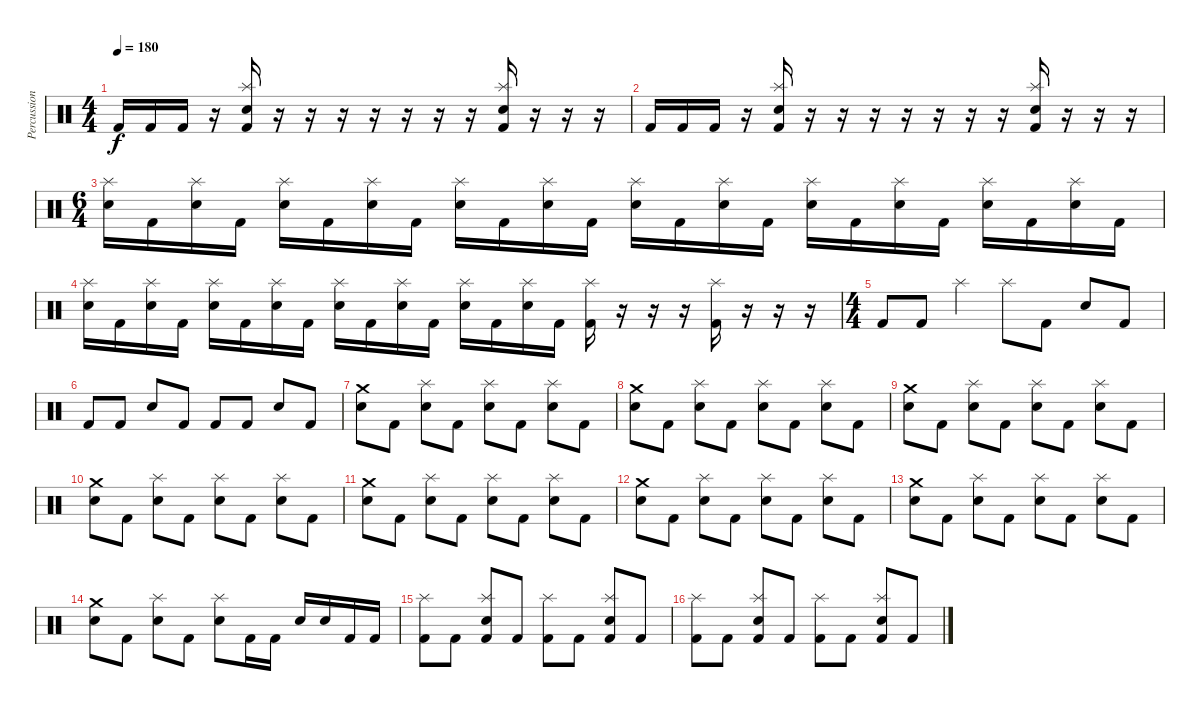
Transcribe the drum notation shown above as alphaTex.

\track ("Percussion" "Percussion") {instrument percussion}
\staff {score}
\articulation defaults
\ts (4 4)
\tempo 180
\clef neutral
\ks c "Kick (hit) 2".16{dy f} "Kick (hit) 2".16 "Kick (hit) 2".16
r.16 ("Splash (hit)" "Snare (hit) 2" "Kick (hit) 2").16 r.16 r.16 r.16 r.16 r.16 r.16 r.16 ("Splash (hit)" "Snare (hit) 2" "Kick (hit) 2").16 r.16 r.16 r.16 |
"Kick (hit) 2".16 "Kick (hit) 2".16 "Kick (hit) 2".16 r.16 ("Splash (hit)" "Snare (hit) 2" "Kick (hit) 2").16 r.16 r.16 r.16 r.16 r.16 r.16 r.16 ("Splash (hit)" "Snare (hit) 2" "Kick (hit) 2").16 r.16 r.16 r.16 |
\ts (6 4)
("Splash (hit)" "Snare (hit) 2").16 "Kick (hit) 2".16 ("Splash (hit)" "Snare (hit) 2").16 "Kick (hit) 2".16 ("Splash (hit)" "Snare (hit) 2").16 "Kick (hit) 2".16 ("Splash (hit)" "Snare (hit) 2").16 "Kick (hit) 2".16 ("Splash (hit)" "Snare (hit) 2").16 "Kick (hit) 2".16 ("Splash (hit)" "Snare (hit) 2").16 "Kick (hit) 2".16 ("Splash (hit)" "Snare (hit) 2").16 "Kick (hit) 2".16 ("Splash (hit)" "Snare (hit) 2").16 "Kick (hit) 2".16 ("Splash (hit)" "Snare (hit) 2").16 "Kick (hit) 2".16 ("Splash (hit)" "Snare (hit) 2").16 "Kick (hit) 2".16 ("Splash (hit)" "Snare (hit) 2").16 "Kick (hit) 2".16 ("Splash (hit)" "Snare (hit) 2").16 "Kick (hit) 2".16 |
("Splash (hit)" "Snare (hit) 2").16 "Kick (hit) 2".16 ("Splash (hit)" "Snare (hit) 2").16 "Kick (hit) 2".16 ("Splash (hit)" "Snare (hit) 2").16 "Kick (hit) 2".16 ("Splash (hit)" "Snare (hit) 2").16 "Kick (hit) 2".16 ("Splash (hit)" "Snare (hit) 2").16 "Kick (hit) 2".16 ("Splash (hit)" "Snare (hit) 2").16 "Kick (hit) 2".16 ("Splash (hit)" "Snare (hit) 2").16 "Kick (hit) 2".16 ("Splash (hit)" "Snare (hit) 2").16 "Kick (hit) 2".16 ("Splash (hit)" "Kick (hit) 2").16 r.16 r.16 r.16 ("Splash (hit)" "Kick (hit) 2").16 r.16 r.16 r.16 |
\ts (4 4)
"Kick (hit) 2".8 "Kick (hit) 2".8 "Splash (hit)".4 "Splash (hit)".8 "Kick (hit) 2".8 "Snare (hit) 2".8 "Kick (hit) 2".8 |
"Kick (hit) 2".8 "Kick (hit) 2".8 "Snare (hit) 2".8 "Kick (hit) 2".8 "Kick (hit) 2".8 "Kick (hit) 2".8 "Snare (hit) 2".8 "Kick (hit) 2".8 |
("Crash medium (hit)" "Snare (hit) 2").8 "Kick (hit) 2".8 ("Splash (hit)" "Snare (hit) 2").8 "Kick (hit) 2".8 ("Splash (hit)" "Snare (hit) 2").8 "Kick (hit) 2".8 ("Splash (hit)" "Snare (hit) 2").8 "Kick (hit) 2".8 |
("Crash medium (hit)" "Snare (hit) 2").8 "Kick (hit) 2".8 ("Splash (hit)" "Snare (hit) 2").8 "Kick (hit) 2".8 ("Splash (hit)" "Snare (hit) 2").8 "Kick (hit) 2".8 ("Splash (hit)" "Snare (hit) 2").8 "Kick (hit) 2".8 |
("Crash medium (hit)" "Snare (hit) 2").8 "Kick (hit) 2".8 ("Splash (hit)" "Snare (hit) 2").8 "Kick (hit) 2".8 ("Splash (hit)" "Snare (hit) 2").8 "Kick (hit) 2".8 ("Splash (hit)" "Snare (hit) 2").8 "Kick (hit) 2".8 |
("Crash medium (hit)" "Snare (hit) 2").8 "Kick (hit) 2".8 ("Splash (hit)" "Snare (hit) 2").8 "Kick (hit) 2".8 ("Splash (hit)" "Snare (hit) 2").8 "Kick (hit) 2".8 ("Splash (hit)" "Snare (hit) 2").8 "Kick (hit) 2".8 |
("Crash medium (hit)" "Snare (hit) 2").8 "Kick (hit) 2".8 ("Splash (hit)" "Snare (hit) 2").8 "Kick (hit) 2".8 ("Splash (hit)" "Snare (hit) 2").8 "Kick (hit) 2".8 ("Splash (hit)" "Snare (hit) 2").8 "Kick (hit) 2".8 |
("Crash medium (hit)" "Snare (hit) 2").8 "Kick (hit) 2".8 ("Splash (hit)" "Snare (hit) 2").8 "Kick (hit) 2".8 ("Splash (hit)" "Snare (hit) 2").8 "Kick (hit) 2".8 ("Splash (hit)" "Snare (hit) 2").8 "Kick (hit) 2".8 |
("Crash medium (hit)" "Snare (hit) 2").8 "Kick (hit) 2".8 ("Splash (hit)" "Snare (hit) 2").8 "Kick (hit) 2".8 ("Splash (hit)" "Snare (hit) 2").8 "Kick (hit) 2".8 ("Splash (hit)" "Snare (hit) 2").8 "Kick (hit) 2".8 |
("Crash medium (hit)" "Snare (hit) 2").8 "Kick (hit) 2".8 ("Splash (hit)" "Snare (hit) 2").8 "Kick (hit) 2".8 ("Splash (hit)" "Snare (hit) 2").8 "Kick (hit) 2".16 "Kick (hit) 2".16 "Snare (hit) 2".16 "Snare (hit) 2".16 "Kick (hit) 2".16 "Kick (hit) 2".16 |
("Splash (hit)" "Kick (hit) 2").8 "Kick (hit) 2".8 ("Splash (hit)" "Snare (hit) 2" "Kick (hit) 2").8 "Kick (hit) 2".8 ("Splash (hit)" "Kick (hit) 2").8 "Kick (hit) 2".8 ("Splash (hit)" "Snare (hit) 2" "Kick (hit) 2").8 "Kick (hit) 2".8 |
("Splash (hit)" "Kick (hit) 2").8 "Kick (hit) 2".8 ("Splash (hit)" "Snare (hit) 2" "Kick (hit) 2").8 "Kick (hit) 2".8 ("Splash (hit)" "Kick (hit) 2").8 "Kick (hit) 2".8 ("Splash (hit)" "Snare (hit) 2" "Kick (hit) 2").8 "Kick (hit) 2".8
